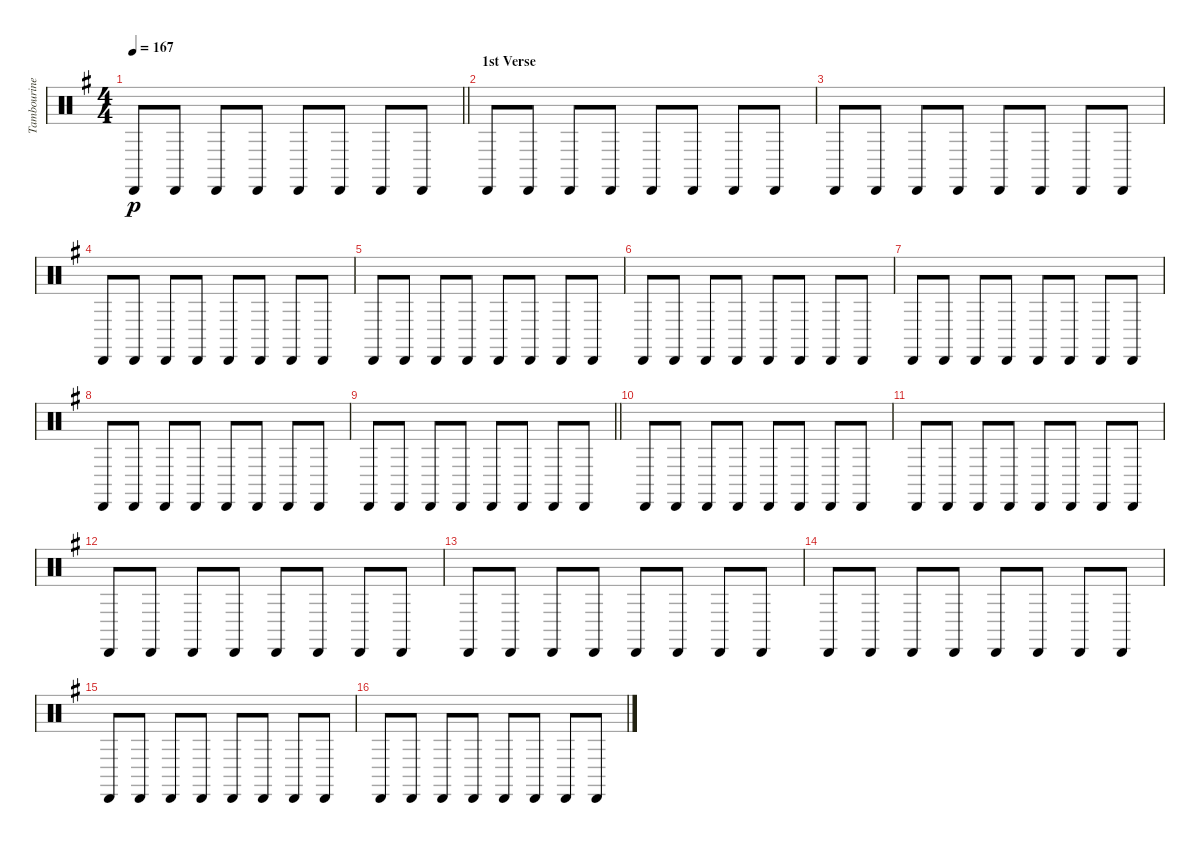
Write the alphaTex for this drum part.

\track ("Tambourine" "Tambourine") {instrument percussion}
\staff {score}
\articulation defaults
\ts (4 4)
\tempo 167
\clef neutral
\barLineRight lightlight
\ks eminor "Cabasa (hit)".8{dy p} "Cabasa (hit)".8 "Cabasa (hit)".8 "Cabasa (hit)".8 "Cabasa (hit)".8 "Cabasa (hit)".8 "Cabasa (hit)".8 "Cabasa (hit)".8
|
\section ("" "1st Verse")
"Cabasa (hit)".8 "Cabasa (hit)".8 "Cabasa (hit)".8 "Cabasa (hit)".8 "Cabasa (hit)".8 "Cabasa (hit)".8 "Cabasa (hit)".8 "Cabasa (hit)".8 |
"Cabasa (hit)".8 "Cabasa (hit)".8 "Cabasa (hit)".8 "Cabasa (hit)".8 "Cabasa (hit)".8 "Cabasa (hit)".8 "Cabasa (hit)".8 "Cabasa (hit)".8 |
"Cabasa (hit)".8 "Cabasa (hit)".8 "Cabasa (hit)".8 "Cabasa (hit)".8 "Cabasa (hit)".8 "Cabasa (hit)".8 "Cabasa (hit)".8 "Cabasa (hit)".8 |
"Cabasa (hit)".8 "Cabasa (hit)".8 "Cabasa (hit)".8 "Cabasa (hit)".8 "Cabasa (hit)".8 "Cabasa (hit)".8 "Cabasa (hit)".8 "Cabasa (hit)".8 |
"Cabasa (hit)".8 "Cabasa (hit)".8 "Cabasa (hit)".8 "Cabasa (hit)".8 "Cabasa (hit)".8 "Cabasa (hit)".8 "Cabasa (hit)".8 "Cabasa (hit)".8 |
"Cabasa (hit)".8 "Cabasa (hit)".8 "Cabasa (hit)".8 "Cabasa (hit)".8 "Cabasa (hit)".8 "Cabasa (hit)".8 "Cabasa (hit)".8 "Cabasa (hit)".8 |
"Cabasa (hit)".8 "Cabasa (hit)".8 "Cabasa (hit)".8 "Cabasa (hit)".8 "Cabasa (hit)".8 "Cabasa (hit)".8 "Cabasa (hit)".8 "Cabasa (hit)".8 |
\barLineRight lightlight "Cabasa (hit)".8 "Cabasa (hit)".8 "Cabasa (hit)".8 "Cabasa (hit)".8 "Cabasa (hit)".8 "Cabasa (hit)".8 "Cabasa (hit)".8 "Cabasa (hit)".8
|
"Cabasa (hit)".8 "Cabasa (hit)".8 "Cabasa (hit)".8 "Cabasa (hit)".8 "Cabasa (hit)".8 "Cabasa (hit)".8 "Cabasa (hit)".8 "Cabasa (hit)".8 |
"Cabasa (hit)".8 "Cabasa (hit)".8 "Cabasa (hit)".8 "Cabasa (hit)".8 "Cabasa (hit)".8 "Cabasa (hit)".8 "Cabasa (hit)".8 "Cabasa (hit)".8 |
"Cabasa (hit)".8 "Cabasa (hit)".8 "Cabasa (hit)".8 "Cabasa (hit)".8 "Cabasa (hit)".8 "Cabasa (hit)".8 "Cabasa (hit)".8 "Cabasa (hit)".8 |
"Cabasa (hit)".8 "Cabasa (hit)".8 "Cabasa (hit)".8 "Cabasa (hit)".8 "Cabasa (hit)".8 "Cabasa (hit)".8 "Cabasa (hit)".8 "Cabasa (hit)".8 |
"Cabasa (hit)".8 "Cabasa (hit)".8 "Cabasa (hit)".8 "Cabasa (hit)".8 "Cabasa (hit)".8 "Cabasa (hit)".8 "Cabasa (hit)".8 "Cabasa (hit)".8 |
"Cabasa (hit)".8 "Cabasa (hit)".8 "Cabasa (hit)".8 "Cabasa (hit)".8 "Cabasa (hit)".8 "Cabasa (hit)".8 "Cabasa (hit)".8 "Cabasa (hit)".8 |
"Cabasa (hit)".8 "Cabasa (hit)".8 "Cabasa (hit)".8 "Cabasa (hit)".8 "Cabasa (hit)".8 "Cabasa (hit)".8 "Cabasa (hit)".8 "Cabasa (hit)".8
